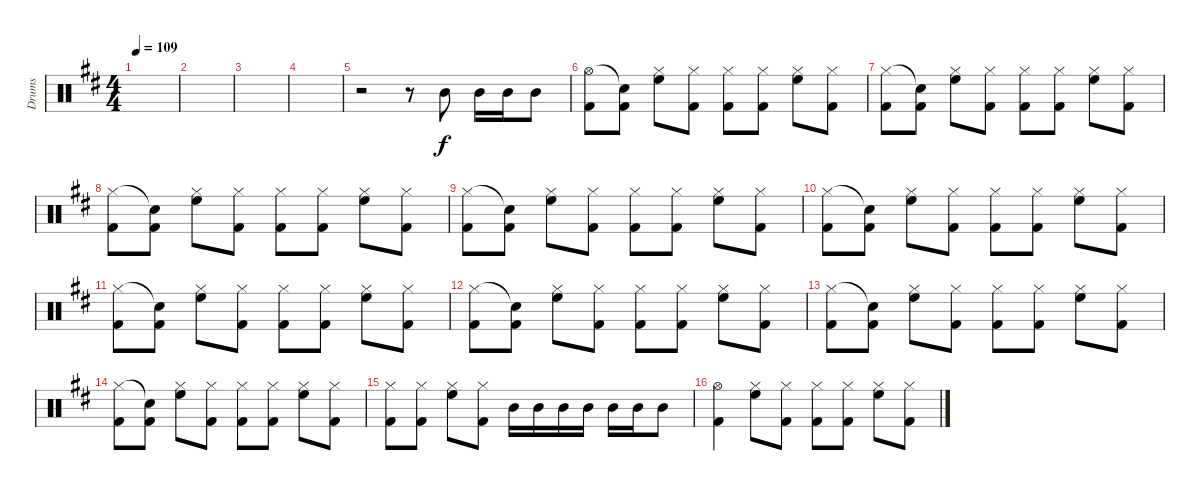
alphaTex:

\track ("Drums" "Drums") {instrument percussion}
\staff {score}
\articulation defaults
\ts (4 4)
\tempo 109
\clef neutral
\ks d
|
|
|
|
r.2 r.8 "Mid Tom (hit)".8 "Mid Tom (hit)".16 "Mid Tom (hit)".16 "Mid Tom (hit)".8 |
("Hi-Hat (open)" "Kick (hit) 2").8 ("Snare (hit)"{t} "Kick (hit) 2").8 ("Hi-Hat (closed)" "High Floor Tom (hit)").8 ("Hi-Hat (closed)" "Kick (hit) 2").8 ("Hi-Hat (closed)" "Kick (hit) 2").8 ("Hi-Hat (closed)" "Kick (hit) 2").8 ("Hi-Hat (closed)" "High Floor Tom (hit)").8 ("Hi-Hat (closed)" "Kick (hit) 2").8 |
("Hi-Hat (closed)" "Kick (hit) 2").8 ("Snare (hit)"{t} "Kick (hit) 2").8 ("Hi-Hat (closed)" "High Floor Tom (hit)").8 ("Hi-Hat (closed)" "Kick (hit) 2").8 ("Hi-Hat (closed)" "Kick (hit) 2").8 ("Hi-Hat (closed)" "Kick (hit) 2").8 ("Hi-Hat (closed)" "High Floor Tom (hit)").8 ("Hi-Hat (closed)" "Kick (hit) 2").8 |
("Hi-Hat (closed)" "Kick (hit) 2").8 ("Snare (hit)"{t} "Kick (hit) 2").8 ("Hi-Hat (closed)" "High Floor Tom (hit)").8 ("Hi-Hat (closed)" "Kick (hit) 2").8 ("Hi-Hat (closed)" "Kick (hit) 2").8 ("Hi-Hat (closed)" "Kick (hit) 2").8 ("Hi-Hat (closed)" "High Floor Tom (hit)").8 ("Hi-Hat (closed)" "Kick (hit) 2").8 |
("Hi-Hat (closed)" "Kick (hit) 2").8 ("Snare (hit)"{t} "Kick (hit) 2").8 ("Hi-Hat (closed)" "High Floor Tom (hit)").8 ("Hi-Hat (closed)" "Kick (hit) 2").8 ("Hi-Hat (closed)" "Kick (hit) 2").8 ("Hi-Hat (closed)" "Kick (hit) 2").8 ("Hi-Hat (closed)" "High Floor Tom (hit)").8 ("Hi-Hat (closed)" "Kick (hit) 2").8 |
("Hi-Hat (closed)" "Kick (hit) 2").8 ("Snare (hit)"{t} "Kick (hit) 2").8 ("Hi-Hat (closed)" "High Floor Tom (hit)").8 ("Hi-Hat (closed)" "Kick (hit) 2").8 ("Hi-Hat (closed)" "Kick (hit) 2").8 ("Hi-Hat (closed)" "Kick (hit) 2").8 ("Hi-Hat (closed)" "High Floor Tom (hit)").8 ("Hi-Hat (closed)" "Kick (hit) 2").8 |
("Hi-Hat (closed)" "Kick (hit) 2").8 ("Snare (hit)"{t} "Kick (hit) 2").8 ("Hi-Hat (closed)" "High Floor Tom (hit)").8 ("Hi-Hat (closed)" "Kick (hit) 2").8 ("Hi-Hat (closed)" "Kick (hit) 2").8 ("Hi-Hat (closed)" "Kick (hit) 2").8 ("Hi-Hat (closed)" "High Floor Tom (hit)").8 ("Hi-Hat (closed)" "Kick (hit) 2").8 |
("Hi-Hat (closed)" "Kick (hit) 2").8 ("Snare (hit)"{t} "Kick (hit) 2").8 ("Hi-Hat (closed)" "High Floor Tom (hit)").8 ("Hi-Hat (closed)" "Kick (hit) 2").8 ("Hi-Hat (closed)" "Kick (hit) 2").8 ("Hi-Hat (closed)" "Kick (hit) 2").8 ("Hi-Hat (closed)" "High Floor Tom (hit)").8 ("Hi-Hat (closed)" "Kick (hit) 2").8 |
("Hi-Hat (closed)" "Kick (hit) 2").8 ("Snare (hit)"{t} "Kick (hit) 2").8 ("Hi-Hat (closed)" "High Floor Tom (hit)").8 ("Hi-Hat (closed)" "Kick (hit) 2").8 ("Hi-Hat (closed)" "Kick (hit) 2").8 ("Hi-Hat (closed)" "Kick (hit) 2").8 ("Hi-Hat (closed)" "High Floor Tom (hit)").8 ("Hi-Hat (closed)" "Kick (hit) 2").8 |
("Hi-Hat (closed)" "Kick (hit) 2").8 ("Snare (hit)"{t} "Kick (hit) 2").8 ("Hi-Hat (closed)" "High Floor Tom (hit)").8 ("Hi-Hat (closed)" "Kick (hit) 2").8 ("Hi-Hat (closed)" "Kick (hit) 2").8 ("Hi-Hat (closed)" "Kick (hit) 2").8 ("Hi-Hat (closed)" "High Floor Tom (hit)").8 ("Hi-Hat (closed)" "Kick (hit) 2").8 |
("Hi-Hat (closed)" "Kick (hit) 2").8 ("Hi-Hat (closed)" "Kick (hit) 2").8 ("Hi-Hat (closed)" "High Floor Tom (hit)").8 ("Hi-Hat (closed)" "Kick (hit) 2").8 "Mid Tom (hit)".16 "Mid Tom (hit)".16 "Mid Tom (hit)".16 "Mid Tom (hit)".16 "Mid Tom (hit)".16 "Mid Tom (hit)".16 "Mid Tom (hit)".8 |
("Hi-Hat (open)" "Kick (hit) 2").4 ("Hi-Hat (closed)" "High Floor Tom (hit)").8 ("Hi-Hat (closed)" "Kick (hit) 2").8 ("Hi-Hat (closed)" "Kick (hit) 2").8 ("Hi-Hat (closed)" "Kick (hit) 2").8 ("Hi-Hat (closed)" "High Floor Tom (hit)").8 ("Hi-Hat (closed)" "Kick (hit) 2").8
